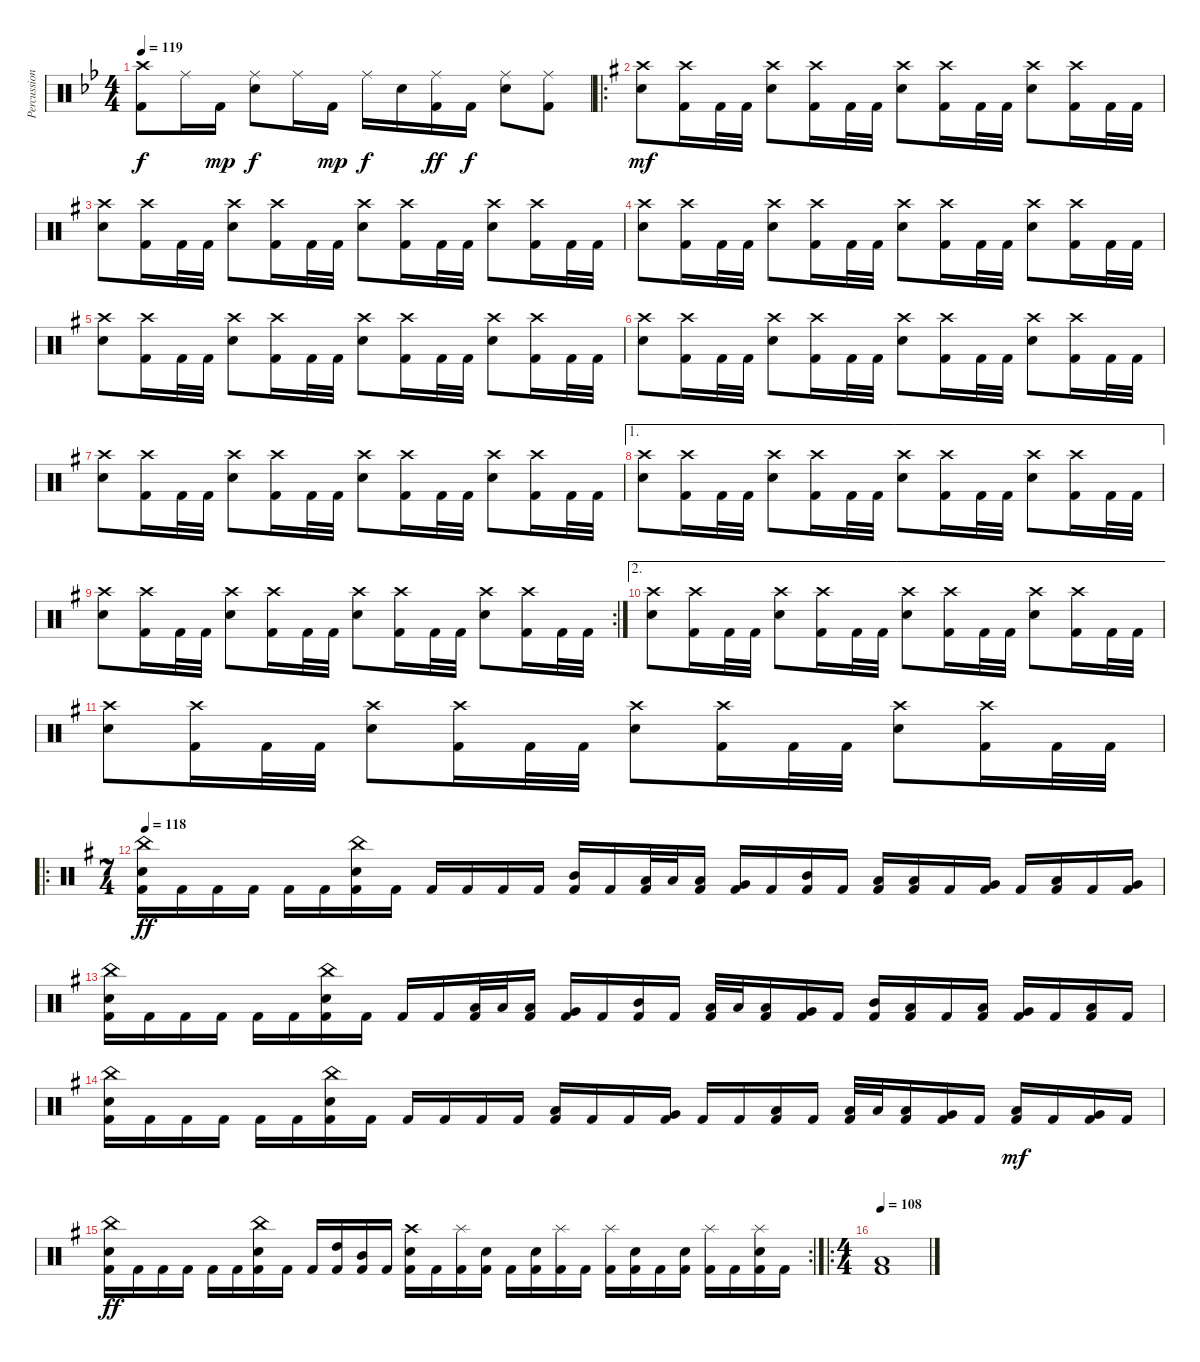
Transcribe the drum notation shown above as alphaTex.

\track ("Percussions" "Percussion") {instrument percussion}
\staff {score}
\articulation defaults
\ts (4 4)
\tempo 119
\clef neutral
\ks bb
("Crash high (hit)" "Kick (hit) 2").8{dy f} "Ride (middle)".16 "Kick (hit) 2".16{dy mp} ("Ride (middle)" "Snare (hit) 2").8{dy f} "Ride (middle)".16 "Kick (hit) 2".16{dy mp} "Ride (middle)".16{dy f} "Snare (hit) 2".16 ("Ride (middle)" "Kick (hit) 2").16{dy ff} "Kick (hit) 2".16{dy f} ("Ride (middle)" "Snare (hit) 2").8 ("Ride (middle)" "Kick (hit) 2").8 |
\ro
\ks g
("Crash high (hit)" "Snare (hit) 2").8{dy mf} ("Crash high (hit)" "Kick (hit) 2").16 "Kick (hit) 2".32 "Kick (hit) 2".32 ("Crash high (hit)" "Snare (hit) 2").8 ("Crash high (hit)" "Kick (hit) 2").16 "Kick (hit) 2".32 "Kick (hit) 2".32 ("Crash high (hit)" "Snare (hit) 2").8 ("Crash high (hit)" "Kick (hit) 2").16 "Kick (hit) 2".32 "Kick (hit) 2".32 ("Crash high (hit)" "Snare (hit) 2").8 ("Crash high (hit)" "Kick (hit) 2").16 "Kick (hit) 2".32 "Kick (hit) 2".32 |
("Crash high (hit)" "Snare (hit) 2").8 ("Crash high (hit)" "Kick (hit) 2").16 "Kick (hit) 2".32 "Kick (hit) 2".32 ("Crash high (hit)" "Snare (hit) 2").8 ("Crash high (hit)" "Kick (hit) 2").16 "Kick (hit) 2".32 "Kick (hit) 2".32 ("Crash high (hit)" "Snare (hit) 2").8 ("Crash high (hit)" "Kick (hit) 2").16 "Kick (hit) 2".32 "Kick (hit) 2".32 ("Crash high (hit)" "Snare (hit) 2").8 ("Crash high (hit)" "Kick (hit) 2").16 "Kick (hit) 2".32 "Kick (hit) 2".32 |
("Crash high (hit)" "Snare (hit) 2").8 ("Crash high (hit)" "Kick (hit) 2").16 "Kick (hit) 2".32 "Kick (hit) 2".32 ("Crash high (hit)" "Snare (hit) 2").8 ("Crash high (hit)" "Kick (hit) 2").16 "Kick (hit) 2".32 "Kick (hit) 2".32 ("Crash high (hit)" "Snare (hit) 2").8 ("Crash high (hit)" "Kick (hit) 2").16 "Kick (hit) 2".32 "Kick (hit) 2".32 ("Crash high (hit)" "Snare (hit) 2").8 ("Crash high (hit)" "Kick (hit) 2").16 "Kick (hit) 2".32 "Kick (hit) 2".32 |
("Crash high (hit)" "Snare (hit) 2").8 ("Crash high (hit)" "Kick (hit) 2").16 "Kick (hit) 2".32 "Kick (hit) 2".32 ("Crash high (hit)" "Snare (hit) 2").8 ("Crash high (hit)" "Kick (hit) 2").16 "Kick (hit) 2".32 "Kick (hit) 2".32 ("Crash high (hit)" "Snare (hit) 2").8 ("Crash high (hit)" "Kick (hit) 2").16 "Kick (hit) 2".32 "Kick (hit) 2".32 ("Crash high (hit)" "Snare (hit) 2").8 ("Crash high (hit)" "Kick (hit) 2").16 "Kick (hit) 2".32 "Kick (hit) 2".32 |
("Crash high (hit)" "Snare (hit) 2").8 ("Crash high (hit)" "Kick (hit) 2").16 "Kick (hit) 2".32 "Kick (hit) 2".32 ("Crash high (hit)" "Snare (hit) 2").8 ("Crash high (hit)" "Kick (hit) 2").16 "Kick (hit) 2".32 "Kick (hit) 2".32 ("Crash high (hit)" "Snare (hit) 2").8 ("Crash high (hit)" "Kick (hit) 2").16 "Kick (hit) 2".32 "Kick (hit) 2".32 ("Crash high (hit)" "Snare (hit) 2").8 ("Crash high (hit)" "Kick (hit) 2").16 "Kick (hit) 2".32 "Kick (hit) 2".32 |
("Crash high (hit)" "Snare (hit) 2").8 ("Crash high (hit)" "Kick (hit) 2").16 "Kick (hit) 2".32 "Kick (hit) 2".32 ("Crash high (hit)" "Snare (hit) 2").8 ("Crash high (hit)" "Kick (hit) 2").16 "Kick (hit) 2".32 "Kick (hit) 2".32 ("Crash high (hit)" "Snare (hit) 2").8 ("Crash high (hit)" "Kick (hit) 2").16 "Kick (hit) 2".32 "Kick (hit) 2".32 ("Crash high (hit)" "Snare (hit) 2").8 ("Crash high (hit)" "Kick (hit) 2").16 "Kick (hit) 2".32 "Kick (hit) 2".32 |
\ae 1
("Crash high (hit)" "Snare (hit) 2").8 ("Crash high (hit)" "Kick (hit) 2").16 "Kick (hit) 2".32 "Kick (hit) 2".32 ("Crash high (hit)" "Snare (hit) 2").8 ("Crash high (hit)" "Kick (hit) 2").16 "Kick (hit) 2".32 "Kick (hit) 2".32 ("Crash high (hit)" "Snare (hit) 2").8 ("Crash high (hit)" "Kick (hit) 2").16 "Kick (hit) 2".32 "Kick (hit) 2".32 ("Crash high (hit)" "Snare (hit) 2").8 ("Crash high (hit)" "Kick (hit) 2").16 "Kick (hit) 2".32 "Kick (hit) 2".32 |
\rc 2
("Crash high (hit)" "Snare (hit) 2").8 ("Crash high (hit)" "Kick (hit) 2").16 "Kick (hit) 2".32 "Kick (hit) 2".32 ("Crash high (hit)" "Snare (hit) 2").8 ("Crash high (hit)" "Kick (hit) 2").16 "Kick (hit) 2".32 "Kick (hit) 2".32 ("Crash high (hit)" "Snare (hit) 2").8 ("Crash high (hit)" "Kick (hit) 2").16 "Kick (hit) 2".32 "Kick (hit) 2".32 ("Crash high (hit)" "Snare (hit) 2").8 ("Crash high (hit)" "Kick (hit) 2").16 "Kick (hit) 2".32 "Kick (hit) 2".32 |
\ae 2
("Crash high (hit)" "Snare (hit) 2").8 ("Crash high (hit)" "Kick (hit) 2").16 "Kick (hit) 2".32 "Kick (hit) 2".32 ("Crash high (hit)" "Snare (hit) 2").8 ("Crash high (hit)" "Kick (hit) 2").16 "Kick (hit) 2".32 "Kick (hit) 2".32 ("Crash high (hit)" "Snare (hit) 2").8 ("Crash high (hit)" "Kick (hit) 2").16 "Kick (hit) 2".32 "Kick (hit) 2".32 ("Crash high (hit)" "Snare (hit) 2").8 ("Crash high (hit)" "Kick (hit) 2").16 "Kick (hit) 2".32 "Kick (hit) 2".32 |
("Crash high (hit)" "Snare (hit) 2").8 ("Crash high (hit)" "Kick (hit) 2").16 "Kick (hit) 2".32 "Kick (hit) 2".32 ("Crash high (hit)" "Snare (hit) 2").8 ("Crash high (hit)" "Kick (hit) 2").16 "Kick (hit) 2".32 "Kick (hit) 2".32 ("Crash high (hit)" "Snare (hit) 2").8 ("Crash high (hit)" "Kick (hit) 2").16 "Kick (hit) 2".32 "Kick (hit) 2".32 ("Crash high (hit)" "Snare (hit) 2").8 ("Crash high (hit)" "Kick (hit) 2").16 "Kick (hit) 2".32 "Kick (hit) 2".32 |
\ro
\ts (7 4)
\tempo 118
("China (hit)" "Snare (hit) 2" "Kick (hit) 2").16{dy ff} "Kick (hit) 2".16 "Kick (hit) 2".16 "Kick (hit) 2".16 "Kick (hit) 2".16 "Kick (hit) 2".16 ("China (hit)" "Snare (hit) 2" "Kick (hit) 2").16 "Kick (hit) 2".16 "Kick (hit) 2".16 "Kick (hit) 2".16 "Kick (hit) 2".16 "Kick (hit) 2".16 ("Mid Tom (hit)" "Kick (hit) 2").16 "Kick (hit) 2".16 ("Low Tom (hit)" "Kick (hit) 2").32 "Low Tom (hit)".32 ("Low Tom (hit)" "Kick (hit) 2").16 ("Very Low Tom (hit)" "Kick (hit) 2").16 "Kick (hit) 2".16 ("Mid Tom (hit)" "Kick (hit) 2").16 "Kick (hit) 2".16 ("Low Tom (hit)" "Kick (hit) 2").16 ("Low Tom (hit)" "Kick (hit) 2").16 "Kick (hit) 2".16 ("Very Low Tom (hit)" "Kick (hit) 2").16 "Kick (hit) 2".16 ("Low Floor Tom (hit)" "Kick (hit) 2").16 "Kick (hit) 2".16 ("Very Low Tom (hit)" "Kick (hit) 2").16 |
("China (hit)" "Snare (hit) 2" "Kick (hit) 2").16 "Kick (hit) 2".16 "Kick (hit) 2".16 "Kick (hit) 2".16 "Kick (hit) 2".16 "Kick (hit) 2".16 ("China (hit)" "Snare (hit) 2" "Kick (hit) 2").16 "Kick (hit) 2".16 "Kick (hit) 2".16 "Kick (hit) 2".16 ("Low Tom (hit)" "Kick (hit) 2").32 "Low Tom (hit)".32 ("Low Tom (hit)" "Kick (hit) 2").16 ("Very Low Tom (hit)" "Kick (hit) 2").16 "Kick (hit) 2".16 ("Mid Tom (hit)" "Kick (hit) 2").16 "Kick (hit) 2".16 ("Low Tom (hit)" "Kick (hit) 2").32 "Low Tom (hit)".32 ("Low Tom (hit)" "Kick (hit) 2").16 ("Very Low Tom (hit)" "Kick (hit) 2").16 "Kick (hit) 2".16 ("Mid Tom (hit)" "Kick (hit) 2").16 ("Low Tom (hit)" "Kick (hit) 2").16 "Kick (hit) 2".16 ("Low Tom (hit)" "Kick (hit) 2").16 ("Very Low Tom (hit)" "Kick (hit) 2").16 "Kick (hit) 2".16 ("Low Floor Tom (hit)" "Kick (hit) 2").16 "Kick (hit) 2".16 |
("China (hit)" "Snare (hit) 2" "Kick (hit) 2").16 "Kick (hit) 2".16 "Kick (hit) 2".16 "Kick (hit) 2".16 "Kick (hit) 2".16 "Kick (hit) 2".16 ("China (hit)" "Snare (hit) 2" "Kick (hit) 2").16 "Kick (hit) 2".16 "Kick (hit) 2".16 "Kick (hit) 2".16 "Kick (hit) 2".16 "Kick (hit) 2".16 ("Low Tom (hit)" "Kick (hit) 2").16 "Kick (hit) 2".16 "Kick (hit) 2".16 ("Very Low Tom (hit)" "Kick (hit) 2").16 "Kick (hit) 2".16 "Kick (hit) 2".16 ("Low Tom (hit)" "Kick (hit) 2").16 "Kick (hit) 2".16 ("Low Tom (hit)" "Kick (hit) 2").32 "Low Tom (hit)".32 ("Low Tom (hit)" "Kick (hit) 2").16 ("Very Low Tom (hit)" "Kick (hit) 2").16 "Kick (hit) 2".16 ("Low Tom (hit)" "Kick (hit) 2").16{dy mf} "Kick (hit) 2".16 ("Very Low Tom (hit)" "Kick (hit) 2").16 "Kick (hit) 2".16 |
\rc 2
("China (hit)" "Snare (hit) 2" "Kick (hit) 2").16{dy ff} "Kick (hit) 2".16 "Kick (hit) 2".16 "Kick (hit) 2".16 "Kick (hit) 2".16 "Kick (hit) 2".16 ("China (hit)" "Snare (hit) 2" "Kick (hit) 2").16 "Kick (hit) 2".16 "Kick (hit) 2".16 ("High Tom (hit)" "Kick (hit) 2").16 ("Mid Tom (hit)" "Kick (hit) 2").16 "Kick (hit) 2".16 ("Crash high (hit)" "Snare (hit) 2" "Kick (hit) 2").16 "Kick (hit) 2".16 ("Splash (hit)" "Kick (hit) 2").16 ("Snare (hit) 2" "Kick (hit) 2").16 "Kick (hit) 2".16 ("Snare (hit) 2" "Kick (hit) 2").16 ("Splash (hit)" "Kick (hit) 2").16 "Kick (hit) 2".16 ("Splash (hit)" "Kick (hit) 2").16 ("Snare (hit) 2" "Kick (hit) 2").16 "Kick (hit) 2".16 ("Snare (hit) 2" "Kick (hit) 2").16 ("Splash (hit)" "Kick (hit) 2").16 "Kick (hit) 2".16 ("Splash (hit)" "Snare (hit) 2" "Kick (hit) 2").16 "Kick (hit) 2".16 |
\ro
\ts (4 4)
\tempo 108
("Low Floor Tom (hit)" "Kick (hit) 2").1
